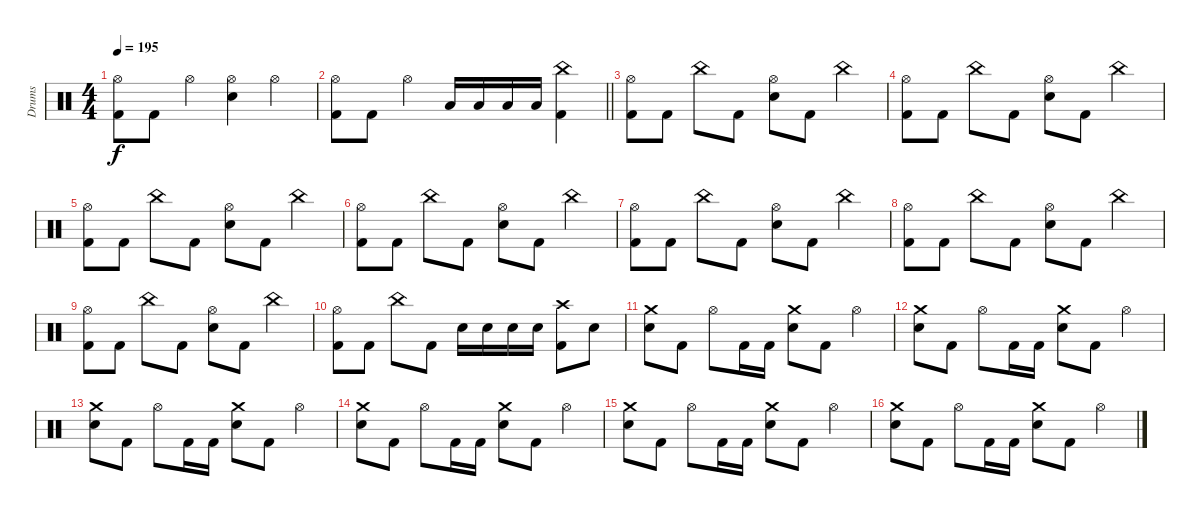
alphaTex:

\track ("Drums" "Drums") {instrument percussion}
\staff {score}
\articulation defaults
\ts (4 4)
\tempo 195
\clef neutral
\ks c
("Hi-Hat (open)" "Kick (hit) 2").8{dy f} "Kick (hit) 2".8 "Hi-Hat (open)".4 ("Hi-Hat (open)" "Electric Snare (hit)").4 "Hi-Hat (open)".4 |
\barLineRight lightlight
("Hi-Hat (open)" "Kick (hit) 2").8 "Kick (hit) 2".8 "Hi-Hat (open)".4 "Low Tom (hit)".16 "Low Tom (hit)".16 "Low Tom (hit)".16 "Low Tom (hit)".16 ("China (hit)" "Kick (hit) 2").4 |
\section ("" "")
("Hi-Hat (open)" "Kick (hit) 2").8 "Kick (hit) 2".8 "China (hit)".8 "Kick (hit) 2".8 ("Hi-Hat (open)" "Electric Snare (hit)").8 "Kick (hit) 2".8 "China (hit)".4 |
("Hi-Hat (open)" "Kick (hit) 2").8 "Kick (hit) 2".8 "China (hit)".8 "Kick (hit) 2".8 ("Hi-Hat (open)" "Electric Snare (hit)").8 "Kick (hit) 2".8 "China (hit)".4 |
("Hi-Hat (open)" "Kick (hit) 2").8 "Kick (hit) 2".8 "China (hit)".8 "Kick (hit) 2".8 ("Hi-Hat (open)" "Electric Snare (hit)").8 "Kick (hit) 2".8 "China (hit)".4 |
("Hi-Hat (open)" "Kick (hit) 2").8 "Kick (hit) 2".8 "China (hit)".8 "Kick (hit) 2".8 ("Hi-Hat (open)" "Electric Snare (hit)").8 "Kick (hit) 2".8 "China (hit)".4 |
("Hi-Hat (open)" "Kick (hit) 2").8 "Kick (hit) 2".8 "China (hit)".8 "Kick (hit) 2".8 ("Hi-Hat (open)" "Electric Snare (hit)").8 "Kick (hit) 2".8 "China (hit)".4 |
("Hi-Hat (open)" "Kick (hit) 2").8 "Kick (hit) 2".8 "China (hit)".8 "Kick (hit) 2".8 ("Hi-Hat (open)" "Electric Snare (hit)").8 "Kick (hit) 2".8 "China (hit)".4 |
("Hi-Hat (open)" "Kick (hit) 2").8 "Kick (hit) 2".8 "China (hit)".8 "Kick (hit) 2".8 ("Hi-Hat (open)" "Electric Snare (hit)").8 "Kick (hit) 2".8 "China (hit)".4 |
("Hi-Hat (open)" "Kick (hit) 2").8 "Kick (hit) 2".8 "China (hit)".8 "Kick (hit) 2".8 "Electric Snare (hit)".16 "Electric Snare (hit)".16 "Electric Snare (hit)".16 "Electric Snare (hit)".16 ("Crash high (hit)" "Kick (hit) 2").8 "Electric Snare (hit)".8 |
("Crash medium (hit)" "Electric Snare (hit)").8 "Kick (hit) 2".8 "Hi-Hat (open)".8 "Kick (hit) 2".16 "Kick (hit) 2".16 ("Crash medium (hit)" "Electric Snare (hit)").8 "Kick (hit) 2".8 "Hi-Hat (open)".4 |
("Crash medium (hit)" "Electric Snare (hit)").8 "Kick (hit) 2".8 "Hi-Hat (open)".8 "Kick (hit) 2".16 "Kick (hit) 2".16 ("Crash medium (hit)" "Electric Snare (hit)").8 "Kick (hit) 2".8 "Hi-Hat (open)".4 |
("Crash medium (hit)" "Electric Snare (hit)").8 "Kick (hit) 2".8 "Hi-Hat (open)".8 "Kick (hit) 2".16 "Kick (hit) 2".16 ("Crash medium (hit)" "Electric Snare (hit)").8 "Kick (hit) 2".8 "Hi-Hat (open)".4 |
("Crash medium (hit)" "Electric Snare (hit)").8 "Kick (hit) 2".8 "Hi-Hat (open)".8 "Kick (hit) 2".16 "Kick (hit) 2".16 ("Crash medium (hit)" "Electric Snare (hit)").8 "Kick (hit) 2".8 "Hi-Hat (open)".4 |
("Crash medium (hit)" "Electric Snare (hit)").8 "Kick (hit) 2".8 "Hi-Hat (open)".8 "Kick (hit) 2".16 "Kick (hit) 2".16 ("Crash medium (hit)" "Electric Snare (hit)").8 "Kick (hit) 2".8 "Hi-Hat (open)".4 |
("Crash medium (hit)" "Electric Snare (hit)").8 "Kick (hit) 2".8 "Hi-Hat (open)".8 "Kick (hit) 2".16 "Kick (hit) 2".16 ("Crash medium (hit)" "Electric Snare (hit)").8 "Kick (hit) 2".8 "Hi-Hat (open)".4
